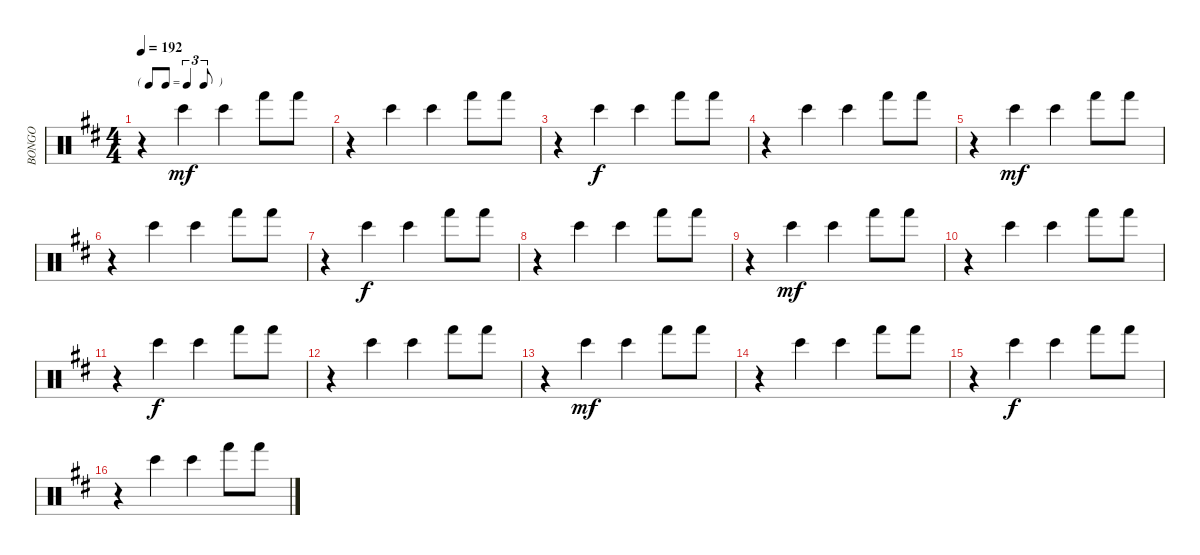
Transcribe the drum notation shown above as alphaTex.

\track ("BONGO" "BONGO") {instrument percussion}
\staff {score}
\articulation defaults
\ts (4 4)
\tf triplet8th
\tempo 192
\clef neutral
\ks d
r.4{dy f} "Bongo High (hit)".4{dy mf} "Bongo High (hit)".4 "Hand (hit)".8 "Hand (hit)".8 |
r.4 "Bongo High (hit)".4 "Bongo High (hit)".4 "Hand (hit)".8 "Hand (hit)".8 |
r.4 "Bongo High (hit)".4{dy f} "Bongo High (hit)".4 "Hand (hit)".8 "Hand (hit)".8 |
r.4 "Bongo High (hit)".4 "Bongo High (hit)".4 "Hand (hit)".8 "Hand (hit)".8 |
r.4 "Bongo High (hit)".4{dy mf} "Bongo High (hit)".4 "Hand (hit)".8 "Hand (hit)".8 |
r.4 "Bongo High (hit)".4 "Bongo High (hit)".4 "Hand (hit)".8 "Hand (hit)".8 |
r.4 "Bongo High (hit)".4{dy f} "Bongo High (hit)".4 "Hand (hit)".8 "Hand (hit)".8 |
r.4 "Bongo High (hit)".4 "Bongo High (hit)".4 "Hand (hit)".8 "Hand (hit)".8 |
r.4 "Bongo High (hit)".4{dy mf} "Bongo High (hit)".4 "Hand (hit)".8 "Hand (hit)".8 |
r.4 "Bongo High (hit)".4 "Bongo High (hit)".4 "Hand (hit)".8 "Hand (hit)".8 |
r.4 "Bongo High (hit)".4{dy f} "Bongo High (hit)".4 "Hand (hit)".8 "Hand (hit)".8 |
r.4 "Bongo High (hit)".4 "Bongo High (hit)".4 "Hand (hit)".8 "Hand (hit)".8 |
r.4 "Bongo High (hit)".4{dy mf} "Bongo High (hit)".4 "Hand (hit)".8 "Hand (hit)".8 |
r.4 "Bongo High (hit)".4 "Bongo High (hit)".4 "Hand (hit)".8 "Hand (hit)".8 |
r.4 "Bongo High (hit)".4{dy f} "Bongo High (hit)".4 "Hand (hit)".8 "Hand (hit)".8 |
r.4 "Bongo High (hit)".4 "Bongo High (hit)".4 "Hand (hit)".8 "Hand (hit)".8
